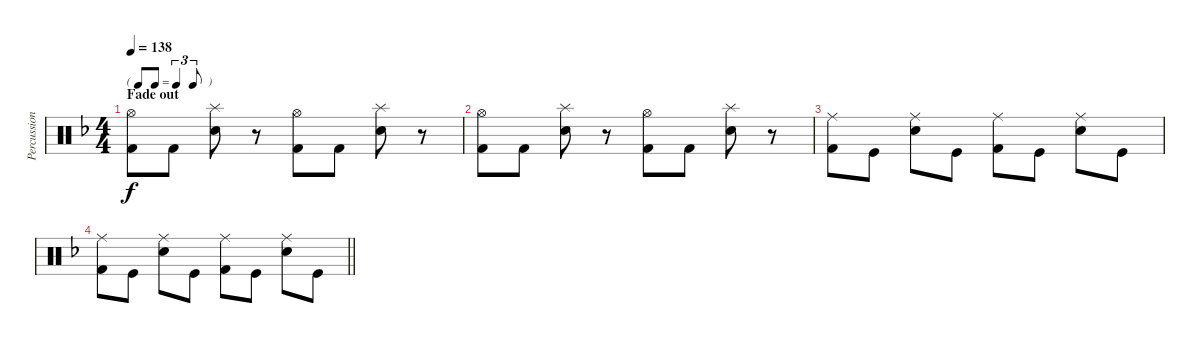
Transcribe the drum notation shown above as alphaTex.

\track ("Percussion" "Percussion") {instrument percussion}
\staff {score}
\articulation defaults
\ts (4 4)
\tf triplet8th
\section ("" "Fade out")
\tempo 138
\clef neutral
\ks f
("Hi-Hat (open)" "Kick (hit) 2").8{dy f} "Kick (hit) 2".8 ("Splash (hit)" "Snare (hit) 2").8 r.8 ("Hi-Hat (open)" "Kick (hit) 2").8 "Kick (hit) 2".8 ("Splash (hit)" "Snare (hit) 2").8 r.8 |
("Hi-Hat (open)" "Kick (hit) 2").8 "Kick (hit) 2".8 ("Splash (hit)" "Snare (hit) 2").8 r.8 ("Hi-Hat (open)" "Kick (hit) 2").8 "Kick (hit) 2".8 ("Splash (hit)" "Snare (hit) 2").8 r.8 |
("Ride (middle)" "Kick (hit) 2").8 "Kick (hit)".8 ("Ride (middle)" "Snare (hit) 2").8 "Kick (hit)".8 ("Ride (middle)" "Kick (hit) 2").8 "Kick (hit)".8 ("Ride (middle)" "Snare (hit) 2").8 "Kick (hit)".8 |
\barLineRight lightlight
("Ride (middle)" "Kick (hit) 2").8 "Kick (hit)".8 ("Ride (middle)" "Snare (hit) 2").8 "Kick (hit)".8 ("Ride (middle)" "Kick (hit) 2").8 "Kick (hit)".8 ("Ride (middle)" "Snare (hit) 2").8 "Kick (hit)".8
